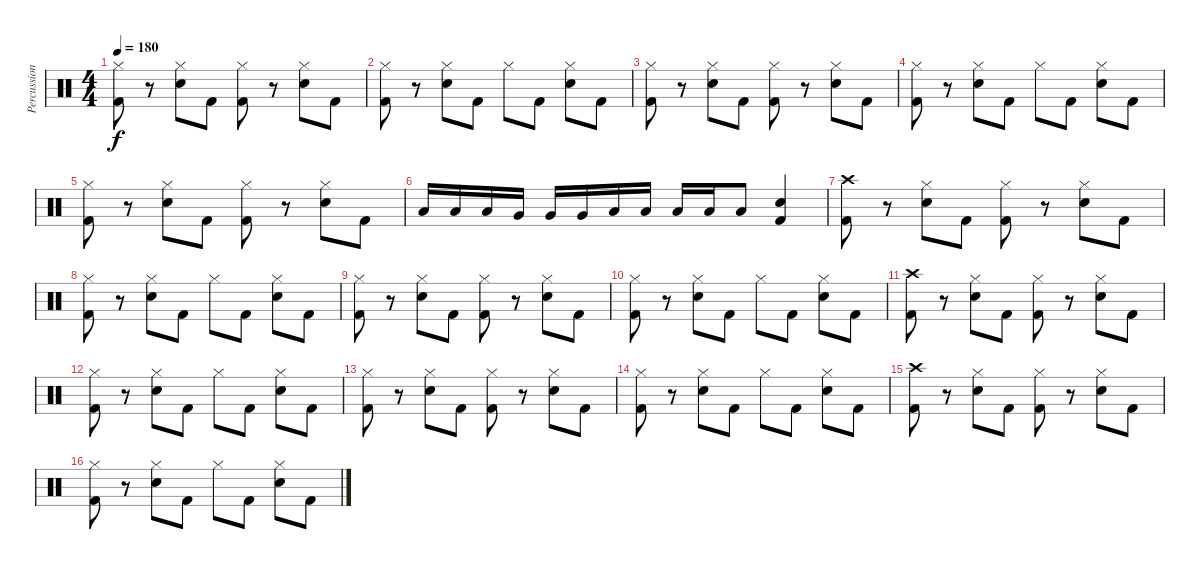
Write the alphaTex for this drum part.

\track ("Percussion" "Percussion") {instrument percussion}
\staff {score}
\articulation defaults
\ts (4 4)
\tempo 180
\clef neutral
\ks c
("Hi-Hat (closed)" "Kick (hit) 2").8{dy f} r.8 ("Hi-Hat (closed)" "Snare (hit) 2").8 "Kick (hit) 2".8 ("Hi-Hat (closed)" "Kick (hit) 2").8 r.8 ("Hi-Hat (closed)" "Snare (hit) 2").8 "Kick (hit) 2".8 |
("Hi-Hat (closed)" "Kick (hit) 2").8 r.8 ("Hi-Hat (closed)" "Snare (hit) 2").8 "Kick (hit) 2".8 "Hi-Hat (closed)".8 "Kick (hit) 2".8 ("Hi-Hat (closed)" "Snare (hit) 2").8 "Kick (hit) 2".8 |
("Hi-Hat (closed)" "Kick (hit) 2").8 r.8 ("Hi-Hat (closed)" "Snare (hit) 2").8 "Kick (hit) 2".8 ("Hi-Hat (closed)" "Kick (hit) 2").8 r.8 ("Hi-Hat (closed)" "Snare (hit) 2").8 "Kick (hit) 2".8 |
("Hi-Hat (closed)" "Kick (hit) 2").8 r.8 ("Hi-Hat (closed)" "Snare (hit) 2").8 "Kick (hit) 2".8 "Hi-Hat (closed)".8 "Kick (hit) 2".8 ("Hi-Hat (closed)" "Snare (hit) 2").8 "Kick (hit) 2".8 |
("Hi-Hat (closed)" "Kick (hit) 2").8 r.8 ("Hi-Hat (closed)" "Snare (hit) 2").8 "Kick (hit) 2".8 ("Hi-Hat (closed)" "Kick (hit) 2").8 r.8 ("Hi-Hat (closed)" "Snare (hit) 2").8 "Kick (hit) 2".8 |
"Low Tom (hit)".16 "Low Tom (hit)".16 "Low Tom (hit)".16 "Very Low Tom (hit)".16 "Very Low Tom (hit)".16 "Very Low Tom (hit)".16 "Low Floor Tom (hit)".16 "Low Floor Tom (hit)".16 "Low Floor Tom (hit)".16 "Low Floor Tom (hit)".16 "Low Floor Tom (hit)".8 ("Snare (hit) 2" "Kick (hit) 2").4 |
("Crash high (hit)" "Kick (hit) 2").8 r.8 ("Hi-Hat (closed)" "Snare (hit) 2").8 "Kick (hit) 2".8 ("Hi-Hat (closed)" "Kick (hit) 2").8 r.8 ("Hi-Hat (closed)" "Snare (hit) 2").8 "Kick (hit) 2".8 |
("Hi-Hat (closed)" "Kick (hit) 2").8 r.8 ("Hi-Hat (closed)" "Snare (hit) 2").8 "Kick (hit) 2".8 "Hi-Hat (closed)".8 "Kick (hit) 2".8 ("Hi-Hat (closed)" "Snare (hit) 2").8 "Kick (hit) 2".8 |
("Hi-Hat (closed)" "Kick (hit) 2").8 r.8 ("Hi-Hat (closed)" "Snare (hit) 2").8 "Kick (hit) 2".8 ("Hi-Hat (closed)" "Kick (hit) 2").8 r.8 ("Hi-Hat (closed)" "Snare (hit) 2").8 "Kick (hit) 2".8 |
("Hi-Hat (closed)" "Kick (hit) 2").8 r.8 ("Hi-Hat (closed)" "Snare (hit) 2").8 "Kick (hit) 2".8 "Hi-Hat (closed)".8 "Kick (hit) 2".8 ("Hi-Hat (closed)" "Snare (hit) 2").8 "Kick (hit) 2".8 |
("Crash high (hit)" "Kick (hit) 2").8 r.8 ("Hi-Hat (closed)" "Snare (hit) 2").8 "Kick (hit) 2".8 ("Hi-Hat (closed)" "Kick (hit) 2").8 r.8 ("Hi-Hat (closed)" "Snare (hit) 2").8 "Kick (hit) 2".8 |
("Hi-Hat (closed)" "Kick (hit) 2").8 r.8 ("Hi-Hat (closed)" "Snare (hit) 2").8 "Kick (hit) 2".8 "Hi-Hat (closed)".8 "Kick (hit) 2".8 ("Hi-Hat (closed)" "Snare (hit) 2").8 "Kick (hit) 2".8 |
("Hi-Hat (closed)" "Kick (hit) 2").8 r.8 ("Hi-Hat (closed)" "Snare (hit) 2").8 "Kick (hit) 2".8 ("Hi-Hat (closed)" "Kick (hit) 2").8 r.8 ("Hi-Hat (closed)" "Snare (hit) 2").8 "Kick (hit) 2".8 |
("Hi-Hat (closed)" "Kick (hit) 2").8 r.8 ("Hi-Hat (closed)" "Snare (hit) 2").8 "Kick (hit) 2".8 "Hi-Hat (closed)".8 "Kick (hit) 2".8 ("Hi-Hat (closed)" "Snare (hit) 2").8 "Kick (hit) 2".8 |
("Crash high (hit)" "Kick (hit) 2").8 r.8 ("Hi-Hat (closed)" "Snare (hit) 2").8 "Kick (hit) 2".8 ("Hi-Hat (closed)" "Kick (hit) 2").8 r.8 ("Hi-Hat (closed)" "Snare (hit) 2").8 "Kick (hit) 2".8 |
("Hi-Hat (closed)" "Kick (hit) 2").8 r.8 ("Hi-Hat (closed)" "Snare (hit) 2").8 "Kick (hit) 2".8 "Hi-Hat (closed)".8 "Kick (hit) 2".8 ("Hi-Hat (closed)" "Snare (hit) 2").8 "Kick (hit) 2".8
